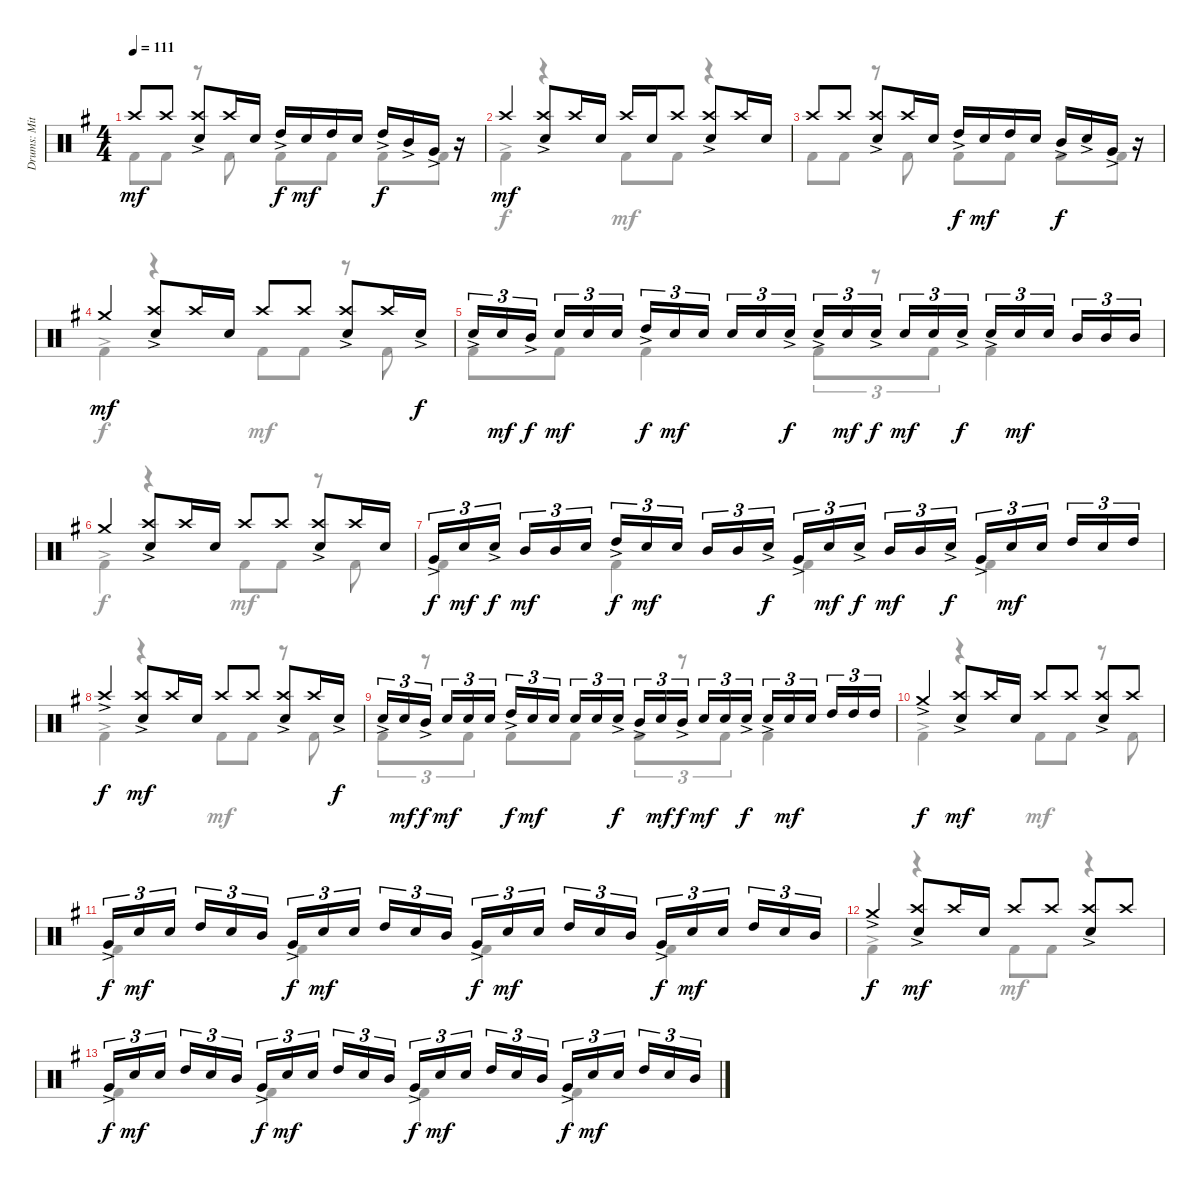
\track ("Drums: Mitch Mitchell" "Drums: Mit") {instrument percussion}
\staff {score}
\articulation defaults
\voice
\ts (4 4)
\tempo 111
\clef neutral
\ks g "Crash high (hit)".8{dy mf} "Crash high (hit)".8
("Crash high (hit)" "Snare (hit) 2"{ac}).8 "Crash high (hit)".16 "Snare (hit) 2".16 "High Tom (hit)"{ac}.16{dy f} "Snare (hit) 2".16{dy mf} "High Tom (hit)".16 "Snare (hit) 2".16 "High Tom (hit)"{ac}.16{dy f} "Mid Tom (hit)"{ac}.16 "Very Low Tom (hit)"{ac}.16 r.16 |
"Crash high (hit)".4{dy mf} ("Crash high (hit)" "Snare (hit) 2"{ac}).8 "Crash high (hit)".16 "Snare (hit) 2".16 "Crash high (hit)".16 "Snare (hit) 2".16 "Crash high (hit)".8 ("Crash high (hit)" "Snare (hit) 2"{ac}).8 "Crash high (hit)".16 "Snare (hit) 2".16 |
"Crash high (hit)".8 "Crash high (hit)".8 ("Crash high (hit)" "Snare (hit) 2"{ac}).8 "Crash high (hit)".16 "Snare (hit) 2".16 "High Tom (hit)"{ac}.16{dy f} "Snare (hit) 2".16{dy mf} "High Tom (hit)".16 "Snare (hit) 2".16 "Mid Tom (hit)"{ac}.16{dy f} "Snare (hit) 2"{ac}.16 "Very Low Tom (hit)"{ac}.16 r.16 |
"Crash medium (hit)".4{dy mf} ("Crash high (hit)" "Snare (hit) 2"{ac}).8 "Crash high (hit)".16 "Snare (hit) 2".16 "Crash high (hit)".8 "Crash high (hit)".8 ("Crash high (hit)" "Snare (hit) 2"{ac}).8 "Crash high (hit)".16 "Snare (hit) 2"{ac}.16{dy f} |
"Snare (hit) 2"{ac}.16{tu (3 2)} "Snare (hit) 2".16{tu (3 2) dy mf} "Mid Tom (hit)"{ac}.16{tu (3 2) dy f beam splitsecondary} "Snare (hit) 2".16{tu (3 2) dy mf} "Snare (hit) 2".16{tu (3 2)} "Snare (hit) 2".16{tu (3 2)} "High Tom (hit)"{ac}.16{tu (3 2) dy f} "Snare (hit) 2".16{tu (3 2) dy mf} "Snare (hit) 2".16{tu (3 2) beam splitsecondary} "Snare (hit) 2".16{tu (3 2)} "Snare (hit) 2".16{tu (3 2)} "Snare (hit) 2"{ac}.16{tu (3 2) dy f} "Snare (hit) 2"{ac}.16{tu (3 2)} "Snare (hit) 2".16{tu (3 2) dy mf} "Snare (hit) 2"{ac}.16{tu (3 2) dy f beam splitsecondary} "Snare (hit) 2".16{tu (3 2) dy mf} "Snare (hit) 2".16{tu (3 2)} "Snare (hit) 2"{ac}.16{tu (3 2) dy f} "Snare (hit) 2"{ac}.16{tu (3 2)} "Snare (hit) 2".16{tu (3 2) dy mf} "Snare (hit) 2".16{tu (3 2) beam splitsecondary} "Mid Tom (hit)".16{tu (3 2)} "Mid Tom (hit)".16{tu (3 2)} "Mid Tom (hit)".16{tu (3 2)} |
"Crash medium (hit)".4 ("Crash high (hit)" "Snare (hit) 2"{ac}).8 "Crash high (hit)".16 "Snare (hit) 2".16 "Crash high (hit)".8 "Crash high (hit)".8 ("Crash high (hit)" "Snare (hit) 2"{ac}).8 "Crash high (hit)".16 "Snare (hit) 2".16 |
"Very Low Tom (hit)"{ac}.16{tu (3 2) dy f} "Snare (hit) 2".16{tu (3 2) dy mf} "Snare (hit) 2"{ac}.16{tu (3 2) dy f beam splitsecondary} "Mid Tom (hit)".16{tu (3 2) dy mf} "Mid Tom (hit)".16{tu (3 2)} "Snare (hit) 2".16{tu (3 2)} "High Tom (hit)"{ac}.16{tu (3 2) dy f} "Snare (hit) 2".16{tu (3 2) dy mf} "Snare (hit) 2".16{tu (3 2) beam splitsecondary} "Mid Tom (hit)".16{tu (3 2)} "Mid Tom (hit)".16{tu (3 2)} "Snare (hit) 2"{ac}.16{tu (3 2) dy f} "Very Low Tom (hit)"{ac}.16{tu (3 2)} "Snare (hit) 2".16{tu (3 2) dy mf} "Snare (hit) 2"{ac}.16{tu (3 2) dy f beam splitsecondary} "Mid Tom (hit)".16{tu (3 2) dy mf} "Mid Tom (hit)".16{tu (3 2)} "Snare (hit) 2"{ac}.16{tu (3 2) dy f} "Very Low Tom (hit)"{ac}.16{tu (3 2)} "Snare (hit) 2".16{tu (3 2) dy mf} "Snare (hit) 2".16{tu (3 2) beam splitsecondary} "High Tom (hit)".16{tu (3 2)} "Snare (hit) 2".16{tu (3 2)} "High Tom (hit)".16{tu (3 2)} |
"Crash high (hit)"{ac}.4{dy f} ("Crash high (hit)" "Snare (hit) 2"{ac}).8{dy mf} "Crash high (hit)".16 "Snare (hit) 2".16 "Crash high (hit)".8 "Crash high (hit)".8 ("Crash high (hit)" "Snare (hit) 2"{ac}).8 "Crash high (hit)".16 "Snare (hit) 2"{ac}.16{dy f} |
"Snare (hit) 2"{ac}.16{tu (3 2)} "Snare (hit) 2".16{tu (3 2) dy mf} "Mid Tom (hit)"{ac}.16{tu (3 2) dy f beam splitsecondary} "Snare (hit) 2".16{tu (3 2) dy mf} "Snare (hit) 2".16{tu (3 2)} "Snare (hit) 2".16{tu (3 2)} "High Tom (hit)"{ac}.16{tu (3 2) dy f} "Snare (hit) 2".16{tu (3 2) dy mf} "Snare (hit) 2".16{tu (3 2) beam splitsecondary} "Snare (hit) 2".16{tu (3 2)} "Snare (hit) 2".16{tu (3 2)} "Snare (hit) 2"{ac}.16{tu (3 2) dy f} "Mid Tom (hit)"{ac}.16{tu (3 2)} "Snare (hit) 2".16{tu (3 2) dy mf} "Mid Tom (hit)"{ac}.16{tu (3 2) dy f beam splitsecondary} "Snare (hit) 2".16{tu (3 2) dy mf} "Snare (hit) 2".16{tu (3 2)} "Snare (hit) 2"{ac}.16{tu (3 2) dy f} "Snare (hit) 2"{ac}.16{tu (3 2)} "Snare (hit) 2".16{tu (3 2) dy mf} "Snare (hit) 2".16{tu (3 2) beam splitsecondary} "High Tom (hit)".16{tu (3 2)} "High Tom (hit)".16{tu (3 2)} "High Tom (hit)".16{tu (3 2)} |
"Crash medium (hit)"{ac}.4{dy f} ("Crash high (hit)" "Snare (hit) 2"{ac}).8{dy mf} "Crash high (hit)".16 "Snare (hit) 2".16 "Crash high (hit)".8 "Crash high (hit)".8 ("Crash high (hit)" "Snare (hit) 2"{ac}).8 "Crash high (hit)".8 |
"Very Low Tom (hit)"{ac}.16{tu (3 2) dy f} "Snare (hit) 2".16{tu (3 2) dy mf} "Snare (hit) 2".16{tu (3 2) beam splitsecondary} "High Tom (hit)".16{tu (3 2)} "Snare (hit) 2".16{tu (3 2)} "Mid Tom (hit)".16{tu (3 2)} "Very Low Tom (hit)"{ac}.16{tu (3 2) dy f} "Snare (hit) 2".16{tu (3 2) dy mf} "Snare (hit) 2".16{tu (3 2) beam splitsecondary} "High Tom (hit)".16{tu (3 2)} "Snare (hit) 2".16{tu (3 2)} "Mid Tom (hit)".16{tu (3 2)} "Very Low Tom (hit)"{ac}.16{tu (3 2) dy f} "Snare (hit) 2".16{tu (3 2) dy mf} "Snare (hit) 2".16{tu (3 2) beam splitsecondary} "High Tom (hit)".16{tu (3 2)} "Snare (hit) 2".16{tu (3 2)} "Mid Tom (hit)".16{tu (3 2)} "Very Low Tom (hit)"{ac}.16{tu (3 2) dy f} "Snare (hit) 2".16{tu (3 2) dy mf} "Snare (hit) 2".16{tu (3 2) beam splitsecondary} "High Tom (hit)".16{tu (3 2)} "Snare (hit) 2".16{tu (3 2)} "Mid Tom (hit)".16{tu (3 2)} |
"Crash medium (hit)"{ac}.4{dy f} ("Crash high (hit)" "Snare (hit) 2"{ac}).8{dy mf} "Crash high (hit)".16 "Snare (hit) 2".16 "Crash high (hit)".8 "Crash high (hit)".8 ("Crash high (hit)" "Snare (hit) 2"{ac}).8 "Crash high (hit)".8 |
"Very Low Tom (hit)"{ac}.16{tu (3 2) dy f} "Snare (hit) 2".16{tu (3 2) dy mf} "Snare (hit) 2".16{tu (3 2) beam splitsecondary} "High Tom (hit)".16{tu (3 2)} "Snare (hit) 2".16{tu (3 2)} "Mid Tom (hit)".16{tu (3 2)} "Very Low Tom (hit)"{ac}.16{tu (3 2) dy f} "Snare (hit) 2".16{tu (3 2) dy mf} "Snare (hit) 2".16{tu (3 2) beam splitsecondary} "High Tom (hit)".16{tu (3 2)} "Snare (hit) 2".16{tu (3 2)} "Mid Tom (hit)".16{tu (3 2)} "Very Low Tom (hit)"{ac}.16{tu (3 2) dy f} "Snare (hit) 2".16{tu (3 2) dy mf} "Snare (hit) 2".16{tu (3 2) beam splitsecondary} "High Tom (hit)".16{tu (3 2)} "Snare (hit) 2".16{tu (3 2)} "Mid Tom (hit)".16{tu (3 2)} "Very Low Tom (hit)"{ac}.16{tu (3 2) dy f} "Snare (hit) 2".16{tu (3 2) dy mf} "Snare (hit) 2".16{tu (3 2) beam splitsecondary} "High Tom (hit)".16{tu (3 2)} "Snare (hit) 2".16{tu (3 2)} "Mid Tom (hit)".16{tu (3 2)} |
\voice
\clef neutral
\ottava regular
\simile none
\ks g "Kick (hit) 2".8{dy mf} "Kick (hit) 2".8
r.8 "Kick (hit) 2".8 "Kick (hit) 2".8 "Kick (hit) 2".8 "Kick (hit) 2".8 "Kick (hit) 2".8 |
"Kick (hit) 2"{ac}.4{dy f} r.4 "Kick (hit) 2".8{dy mf} "Kick (hit) 2".8 r.4 |
"Kick (hit) 2".8 "Kick (hit) 2".8 r.8 "Kick (hit) 2".8 "Kick (hit) 2".8 "Kick (hit) 2".8 "Kick (hit) 2".8 "Kick (hit) 2".8 |
"Kick (hit) 2"{ac}.4{dy f} r.4 "Kick (hit) 2".8{dy mf} "Kick (hit) 2".8 r.8 "Kick (hit) 2".8 |
"Kick (hit) 2".8 "Kick (hit) 2".8 "Kick (hit) 2".4 "Kick (hit) 2".8{tu (3 2)} r.8{tu (3 2)} "Kick (hit) 2".8{tu (3 2)} "Kick (hit) 2".4 |
"Kick (hit) 2"{ac}.4{dy f} r.4 "Kick (hit) 2".8{dy mf} "Kick (hit) 2".8 r.8 "Kick (hit) 2".8 |
"Kick (hit) 2".4 "Kick (hit) 2".4 "Kick (hit) 2".4 "Kick (hit) 2".4 |
"Kick (hit) 2"{ac}.4{dy f} r.4 "Kick (hit) 2".8{dy mf} "Kick (hit) 2".8 r.8 "Kick (hit) 2".8 |
"Kick (hit) 2".8{tu (3 2)} r.8{tu (3 2)} "Kick (hit) 2".8{tu (3 2)} "Kick (hit) 2".8 "Kick (hit) 2".8 "Kick (hit) 2".8{tu (3 2)} r.8{tu (3 2)} "Kick (hit) 2".8{tu (3 2)} "Kick (hit) 2".4 |
"Kick (hit) 2"{ac}.4{dy f} r.4 "Kick (hit) 2".8{dy mf} "Kick (hit) 2".8 r.8 "Kick (hit) 2".8 |
"Kick (hit) 2".4 "Kick (hit) 2".4 "Kick (hit) 2".4 "Kick (hit) 2".4 |
"Kick (hit) 2"{ac}.4{dy f} r.4 "Kick (hit) 2".8{dy mf} "Kick (hit) 2".8 r.4 |
"Kick (hit) 2".4 "Kick (hit) 2".4 "Kick (hit) 2".4 "Kick (hit) 2".4 |
